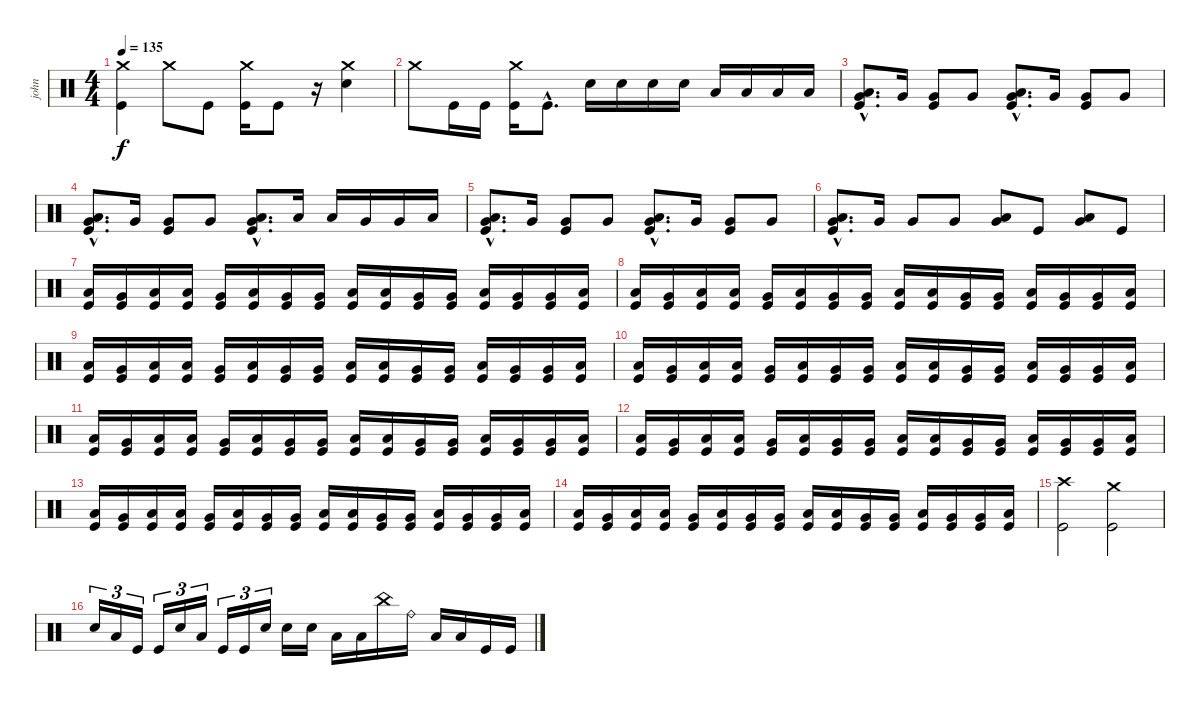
\track ("john" "john") {instrument percussion}
\staff {score}
\articulation defaults
\ts (4 4)
\tempo 135
\clef neutral
\ks c
("Kick (hit)" "Crash medium (hit)").4{dy f} "Crash medium (hit)".8 "Kick (hit)".8 ("Kick (hit)" "Crash medium (hit)").16 "Kick (hit)".8 r.16 ("Snare (hit) 2" "Crash medium (hit)").4 |
"Crash medium (hit)".8 "Kick (hit)".16 "Kick (hit)".16 ("Kick (hit)" "Crash medium (hit)").16 "Kick (hit)"{hac}.8{d} "Snare (hit) 2".16 "Snare (hit) 2".16 "Snare (hit) 2".16 "Snare (hit) 2".16 "Low Floor Tom (hit)".16 "Low Floor Tom (hit)".16 "Low Floor Tom (hit)".16 "Low Floor Tom (hit)".16 |
("Very Low Tom (hit)"{hac} "Low Floor Tom (hit)"{hac} "Kick (hit)"{hac}).8{d} "Very Low Tom (hit)".16 ("Very Low Tom (hit)" "Kick (hit)").8 "Very Low Tom (hit)".8 ("Very Low Tom (hit)"{hac} "Low Floor Tom (hit)"{hac} "Kick (hit)"{hac}).8{d} "Very Low Tom (hit)".16 ("Very Low Tom (hit)" "Kick (hit)").8 "Very Low Tom (hit)".8 |
("Very Low Tom (hit)"{hac} "Low Floor Tom (hit)"{hac} "Kick (hit)"{hac}).8{d} "Very Low Tom (hit)".16 ("Very Low Tom (hit)" "Kick (hit)").8 "Very Low Tom (hit)".8 ("Very Low Tom (hit)"{hac} "Low Floor Tom (hit)"{hac} "Kick (hit)"{hac}).8{d} "Low Tom (hit)".16 "Low Tom (hit)".16 "Very Low Tom (hit)".16 "Very Low Tom (hit)".16 "Low Floor Tom (hit)".16 |
("Very Low Tom (hit)"{hac} "Low Floor Tom (hit)"{hac} "Kick (hit)"{hac}).8{d} "Very Low Tom (hit)".16 ("Very Low Tom (hit)" "Kick (hit)").8 "Very Low Tom (hit)".8 ("Very Low Tom (hit)"{hac} "Low Floor Tom (hit)"{hac} "Kick (hit)"{hac}).8{d} "Very Low Tom (hit)".16 ("Very Low Tom (hit)" "Kick (hit)").8 "Very Low Tom (hit)".8 |
("Very Low Tom (hit)"{hac} "Low Floor Tom (hit)"{hac} "Kick (hit)"{hac}).8{d} "Very Low Tom (hit)".16 "Very Low Tom (hit)".8 "Very Low Tom (hit)".8 ("Very Low Tom (hit)" "Low Floor Tom (hit)").8 "Kick (hit)".8 ("Very Low Tom (hit)" "Low Floor Tom (hit)").8 "Kick (hit)".8 |
("Kick (hit)" "Low Floor Tom (hit)").16 ("Kick (hit)" "Very Low Tom (hit)").16 ("Kick (hit)" "Low Floor Tom (hit)").16 ("Kick (hit)" "Low Floor Tom (hit)").16 ("Kick (hit)" "Very Low Tom (hit)").16 ("Kick (hit)" "Low Tom (hit)").16 ("Kick (hit)" "Very Low Tom (hit)").16 ("Kick (hit)" "Very Low Tom (hit)").16 ("Kick (hit)" "Low Floor Tom (hit)").16 ("Kick (hit)" "Low Tom (hit)").16 ("Kick (hit)" "Very Low Tom (hit)").16 ("Kick (hit)" "Very Low Tom (hit)").16 ("Kick (hit)" "Low Floor Tom (hit)").16 ("Kick (hit)" "Very Low Tom (hit)").16 ("Kick (hit)" "Very Low Tom (hit)").16 ("Kick (hit)" "Low Floor Tom (hit)").16 |
("Kick (hit)" "Low Floor Tom (hit)").16 ("Kick (hit)" "Very Low Tom (hit)").16 ("Kick (hit)" "Low Floor Tom (hit)").16 ("Kick (hit)" "Low Floor Tom (hit)").16 ("Kick (hit)" "Very Low Tom (hit)").16 ("Kick (hit)" "Low Tom (hit)").16 ("Kick (hit)" "Very Low Tom (hit)").16 ("Kick (hit)" "Very Low Tom (hit)").16 ("Kick (hit)" "Low Floor Tom (hit)").16 ("Kick (hit)" "Low Tom (hit)").16 ("Kick (hit)" "Very Low Tom (hit)").16 ("Kick (hit)" "Very Low Tom (hit)").16 ("Kick (hit)" "Low Floor Tom (hit)").16 ("Kick (hit)" "Very Low Tom (hit)").16 ("Kick (hit)" "Very Low Tom (hit)").16 ("Kick (hit)" "Low Floor Tom (hit)").16 |
("Kick (hit)" "Low Floor Tom (hit)").16 ("Kick (hit)" "Very Low Tom (hit)").16 ("Kick (hit)" "Low Floor Tom (hit)").16 ("Kick (hit)" "Low Floor Tom (hit)").16 ("Kick (hit)" "Very Low Tom (hit)").16 ("Kick (hit)" "Low Tom (hit)").16 ("Kick (hit)" "Very Low Tom (hit)").16 ("Kick (hit)" "Very Low Tom (hit)").16 ("Kick (hit)" "Low Floor Tom (hit)").16 ("Kick (hit)" "Low Tom (hit)").16 ("Kick (hit)" "Very Low Tom (hit)").16 ("Kick (hit)" "Very Low Tom (hit)").16 ("Kick (hit)" "Low Floor Tom (hit)").16 ("Kick (hit)" "Very Low Tom (hit)").16 ("Kick (hit)" "Very Low Tom (hit)").16 ("Kick (hit)" "Low Floor Tom (hit)").16 |
("Kick (hit)" "Low Floor Tom (hit)").16 ("Kick (hit)" "Very Low Tom (hit)").16 ("Kick (hit)" "Low Floor Tom (hit)").16 ("Kick (hit)" "Low Floor Tom (hit)").16 ("Kick (hit)" "Very Low Tom (hit)").16 ("Kick (hit)" "Low Tom (hit)").16 ("Kick (hit)" "Very Low Tom (hit)").16 ("Kick (hit)" "Very Low Tom (hit)").16 ("Kick (hit)" "Low Floor Tom (hit)").16 ("Kick (hit)" "Low Tom (hit)").16 ("Kick (hit)" "Very Low Tom (hit)").16 ("Kick (hit)" "Very Low Tom (hit)").16 ("Kick (hit)" "Low Floor Tom (hit)").16 ("Kick (hit)" "Very Low Tom (hit)").16 ("Kick (hit)" "Very Low Tom (hit)").16 ("Kick (hit)" "Low Floor Tom (hit)").16 |
("Kick (hit)" "Low Floor Tom (hit)").16 ("Kick (hit)" "Very Low Tom (hit)").16 ("Kick (hit)" "Low Floor Tom (hit)").16 ("Kick (hit)" "Low Floor Tom (hit)").16 ("Kick (hit)" "Very Low Tom (hit)").16 ("Kick (hit)" "Low Tom (hit)").16 ("Kick (hit)" "Very Low Tom (hit)").16 ("Kick (hit)" "Very Low Tom (hit)").16 ("Kick (hit)" "Low Floor Tom (hit)").16 ("Kick (hit)" "Low Tom (hit)").16 ("Kick (hit)" "Very Low Tom (hit)").16 ("Kick (hit)" "Very Low Tom (hit)").16 ("Kick (hit)" "Low Floor Tom (hit)").16 ("Kick (hit)" "Very Low Tom (hit)").16 ("Kick (hit)" "Very Low Tom (hit)").16 ("Kick (hit)" "Low Floor Tom (hit)").16 |
("Kick (hit)" "Low Floor Tom (hit)").16 ("Kick (hit)" "Very Low Tom (hit)").16 ("Kick (hit)" "Low Floor Tom (hit)").16 ("Kick (hit)" "Low Floor Tom (hit)").16 ("Kick (hit)" "Very Low Tom (hit)").16 ("Kick (hit)" "Low Tom (hit)").16 ("Kick (hit)" "Very Low Tom (hit)").16 ("Kick (hit)" "Very Low Tom (hit)").16 ("Kick (hit)" "Low Floor Tom (hit)").16 ("Kick (hit)" "Low Tom (hit)").16 ("Kick (hit)" "Very Low Tom (hit)").16 ("Kick (hit)" "Very Low Tom (hit)").16 ("Kick (hit)" "Low Floor Tom (hit)").16 ("Kick (hit)" "Very Low Tom (hit)").16 ("Kick (hit)" "Very Low Tom (hit)").16 ("Kick (hit)" "Low Floor Tom (hit)").16 |
("Kick (hit)" "Low Floor Tom (hit)").16 ("Kick (hit)" "Very Low Tom (hit)").16 ("Kick (hit)" "Low Floor Tom (hit)").16 ("Kick (hit)" "Low Floor Tom (hit)").16 ("Kick (hit)" "Very Low Tom (hit)").16 ("Kick (hit)" "Low Tom (hit)").16 ("Kick (hit)" "Very Low Tom (hit)").16 ("Kick (hit)" "Very Low Tom (hit)").16 ("Kick (hit)" "Low Floor Tom (hit)").16 ("Kick (hit)" "Low Tom (hit)").16 ("Kick (hit)" "Very Low Tom (hit)").16 ("Kick (hit)" "Very Low Tom (hit)").16 ("Kick (hit)" "Low Floor Tom (hit)").16 ("Kick (hit)" "Very Low Tom (hit)").16 ("Kick (hit)" "Very Low Tom (hit)").16 ("Kick (hit)" "Low Floor Tom (hit)").16 |
("Kick (hit)" "Low Floor Tom (hit)").16 ("Kick (hit)" "Very Low Tom (hit)").16 ("Kick (hit)" "Low Floor Tom (hit)").16 ("Kick (hit)" "Low Floor Tom (hit)").16 ("Kick (hit)" "Very Low Tom (hit)").16 ("Kick (hit)" "Low Tom (hit)").16 ("Kick (hit)" "Very Low Tom (hit)").16 ("Kick (hit)" "Very Low Tom (hit)").16 ("Kick (hit)" "Low Floor Tom (hit)").16 ("Kick (hit)" "Low Tom (hit)").16 ("Kick (hit)" "Very Low Tom (hit)").16 ("Kick (hit)" "Very Low Tom (hit)").16 ("Kick (hit)" "Low Floor Tom (hit)").16 ("Kick (hit)" "Very Low Tom (hit)").16 ("Kick (hit)" "Very Low Tom (hit)").16 ("Kick (hit)" "Low Floor Tom (hit)").16 |
("Kick (hit)" "Crash high (hit)").2 ("Kick (hit)" "Crash medium (hit)").2 |
"Snare (hit) 2".16{tu (3 2)} "Low Floor Tom (hit)".16{tu (3 2)} "Kick (hit)".16{tu (3 2)} "Kick (hit)".16{tu (3 2)} "Snare (hit) 2".16{tu (3 2)} "Low Floor Tom (hit)".16{tu (3 2)} "Kick (hit)".16{tu (3 2)} "Kick (hit)".16{tu (3 2)} "Snare (hit) 2".16{tu (3 2)} "Snare (hit) 2".16 "Snare (hit) 2".16 "Low Tom (hit)".16 "Low Tom (hit)".16 "China (hit)".16 "Ride (bell)".16 "Low Floor Tom (hit)".16 "Low Floor Tom (hit)".16 "Kick (hit)".16 "Kick (hit)".16
